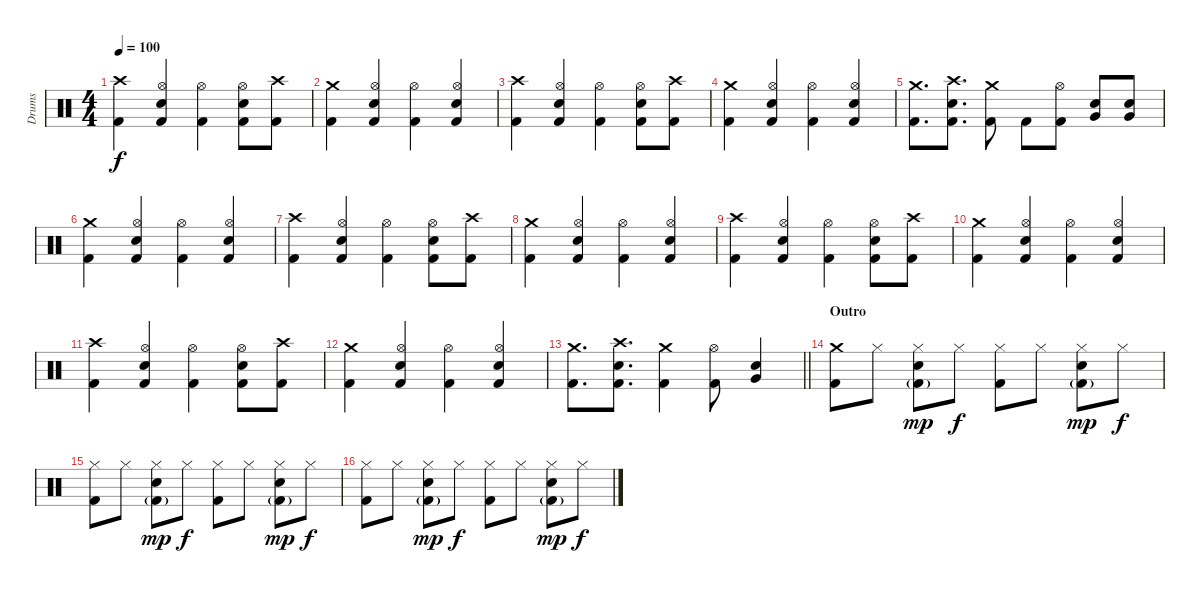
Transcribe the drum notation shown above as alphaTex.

\track ("Drums" "Drums") {instrument percussion}
\staff {score}
\articulation defaults
\ts (4 4)
\tempo 100
\clef neutral
\ks c
("Crash high (hit)" "Kick (hit) 2").4{dy f} ("Hi-Hat (open)" "Electric Snare (hit)" "Kick (hit) 2").4 ("Hi-Hat (open)" "Kick (hit) 2").4 ("Hi-Hat (open)" "Electric Snare (hit)" "Kick (hit) 2").8 ("Crash high (hit)" "Kick (hit) 2").8 |
("Crash medium (hit)" "Kick (hit) 2").4 ("Hi-Hat (open)" "Electric Snare (hit)" "Kick (hit) 2").4 ("Hi-Hat (open)" "Kick (hit) 2").4 ("Hi-Hat (open)" "Electric Snare (hit)" "Kick (hit) 2").4 |
("Crash high (hit)" "Kick (hit) 2").4 ("Hi-Hat (open)" "Electric Snare (hit)" "Kick (hit) 2").4 ("Hi-Hat (open)" "Kick (hit) 2").4 ("Hi-Hat (open)" "Electric Snare (hit)" "Kick (hit) 2").8 ("Crash high (hit)" "Kick (hit) 2").8 |
("Crash medium (hit)" "Kick (hit) 2").4 ("Hi-Hat (open)" "Electric Snare (hit)" "Kick (hit) 2").4 ("Hi-Hat (open)" "Kick (hit) 2").4 ("Hi-Hat (open)" "Electric Snare (hit)" "Kick (hit) 2").4 |
("Crash medium (hit)" "Kick (hit) 2").8{d} ("Crash high (hit)" "Electric Snare (hit)" "Kick (hit) 2").8{d} ("Crash medium (hit)" "Kick (hit) 2").8 "Kick (hit) 2".8 ("Hi-Hat (open)" "Kick (hit) 2").8 ("Electric Snare (hit)" "Very Low Tom (hit)").8 ("Electric Snare (hit)" "Very Low Tom (hit)").8 |
("Crash medium (hit)" "Kick (hit) 2").4 ("Hi-Hat (open)" "Electric Snare (hit)" "Kick (hit) 2").4 ("Hi-Hat (open)" "Kick (hit) 2").4 ("Hi-Hat (open)" "Electric Snare (hit)" "Kick (hit) 2").4 |
("Crash high (hit)" "Kick (hit) 2").4 ("Hi-Hat (open)" "Electric Snare (hit)" "Kick (hit) 2").4 ("Hi-Hat (open)" "Kick (hit) 2").4 ("Hi-Hat (open)" "Electric Snare (hit)" "Kick (hit) 2").8 ("Crash high (hit)" "Kick (hit) 2").8 |
("Crash medium (hit)" "Kick (hit) 2").4 ("Hi-Hat (open)" "Electric Snare (hit)" "Kick (hit) 2").4 ("Hi-Hat (open)" "Kick (hit) 2").4 ("Hi-Hat (open)" "Electric Snare (hit)" "Kick (hit) 2").4 |
("Crash high (hit)" "Kick (hit) 2").4 ("Hi-Hat (open)" "Electric Snare (hit)" "Kick (hit) 2").4 ("Hi-Hat (open)" "Kick (hit) 2").4 ("Hi-Hat (open)" "Electric Snare (hit)" "Kick (hit) 2").8 ("Crash high (hit)" "Kick (hit) 2").8 |
("Crash medium (hit)" "Kick (hit) 2").4 ("Hi-Hat (open)" "Electric Snare (hit)" "Kick (hit) 2").4 ("Hi-Hat (open)" "Kick (hit) 2").4 ("Hi-Hat (open)" "Electric Snare (hit)" "Kick (hit) 2").4 |
("Crash high (hit)" "Kick (hit) 2").4 ("Hi-Hat (open)" "Electric Snare (hit)" "Kick (hit) 2").4 ("Hi-Hat (open)" "Kick (hit) 2").4 ("Hi-Hat (open)" "Electric Snare (hit)" "Kick (hit) 2").8 ("Crash high (hit)" "Kick (hit) 2").8 |
("Crash medium (hit)" "Kick (hit) 2").4 ("Hi-Hat (open)" "Electric Snare (hit)" "Kick (hit) 2").4 ("Hi-Hat (open)" "Kick (hit) 2").4 ("Hi-Hat (open)" "Electric Snare (hit)" "Kick (hit) 2").4 |
\barLineRight lightlight
("Crash medium (hit)" "Kick (hit) 2").8{d} ("Crash high (hit)" "Electric Snare (hit)" "Kick (hit) 2").8{d} ("Crash medium (hit)" "Kick (hit) 2").4 ("Hi-Hat (open)" "Kick (hit) 2").8 ("Electric Snare (hit)" "Very Low Tom (hit)").4 |
\section ("" "Outro")
("Crash medium (hit)" "Kick (hit) 2").8 "Hi-Hat (closed)".8 ("Hi-Hat (closed)" "Electric Snare (hit)" "Kick (hit) 2"{g}).8{dy mp} "Hi-Hat (closed)".8{dy f} ("Hi-Hat (closed)" "Kick (hit) 2").8 "Hi-Hat (closed)".8 ("Hi-Hat (closed)" "Electric Snare (hit)" "Kick (hit) 2"{g}).8{dy mp} "Hi-Hat (closed)".8{dy f} |
("Hi-Hat (closed)" "Kick (hit) 2").8 "Hi-Hat (closed)".8 ("Hi-Hat (closed)" "Electric Snare (hit)" "Kick (hit) 2"{g}).8{dy mp} "Hi-Hat (closed)".8{dy f} ("Hi-Hat (closed)" "Kick (hit) 2").8 "Hi-Hat (closed)".8 ("Hi-Hat (closed)" "Electric Snare (hit)" "Kick (hit) 2"{g}).8{dy mp} "Hi-Hat (closed)".8{dy f} |
("Hi-Hat (closed)" "Kick (hit) 2").8 "Hi-Hat (closed)".8 ("Hi-Hat (closed)" "Electric Snare (hit)" "Kick (hit) 2"{g}).8{dy mp} "Hi-Hat (closed)".8{dy f} ("Hi-Hat (closed)" "Kick (hit) 2").8 "Hi-Hat (closed)".8 ("Hi-Hat (closed)" "Electric Snare (hit)" "Kick (hit) 2"{g}).8{dy mp} "Hi-Hat (closed)".8{dy f}
